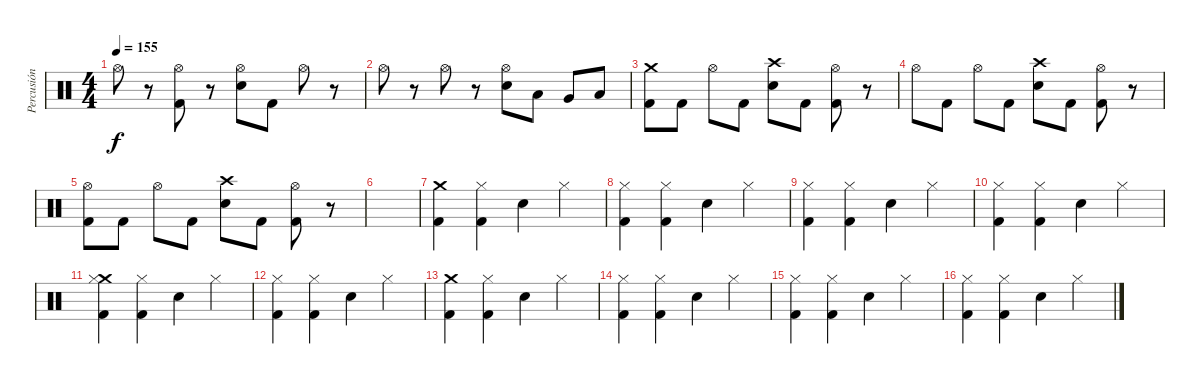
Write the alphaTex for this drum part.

\track ("Percusión" "Percusión") {instrument percussion}
\staff {score}
\articulation defaults
\ts (4 4)
\tempo 155
\clef neutral
\ks c "Hi-Hat (open)".8{dy f}
r.8 ("Hi-Hat (open)" "Kick (hit) 2").8 r.8 ("Hi-Hat (open)" "Electric Snare (hit)").8 "Kick (hit) 2".8 "Hi-Hat (open)".8 r.8 |
"Hi-Hat (open)".8 r.8 "Hi-Hat (open)".8 r.8 ("Hi-Hat (open)" "Electric Snare (hit)").8 "Low Tom (hit)".8 "Very Low Tom (hit)".8 "Low Floor Tom (hit)".8 |
("Crash medium (hit)" "Kick (hit) 2").8 "Kick (hit) 2".8 "Hi-Hat (open)".8 "Kick (hit) 2".8 ("Crash high (hit)" "Electric Snare (hit)").8 "Kick (hit) 2".8 ("Hi-Hat (open)" "Kick (hit) 2").8 r.8 |
"Hi-Hat (open)".8 "Kick (hit) 2".8 "Hi-Hat (open)".8 "Kick (hit) 2".8 ("Crash high (hit)" "Electric Snare (hit)").8 "Kick (hit) 2".8 ("Hi-Hat (open)" "Kick (hit) 2").8 r.8 |
("Hi-Hat (open)" "Kick (hit) 2").8 "Kick (hit) 2".8 "Hi-Hat (open)".8 "Kick (hit) 2".8 ("Crash high (hit)" "Electric Snare (hit)").8 "Kick (hit) 2".8 ("Hi-Hat (open)" "Kick (hit) 2").8 r.8 |
|
("Crash medium (hit)" "Kick (hit) 2").4 ("Hi-Hat (closed)" "Kick (hit) 2").4 "Electric Snare (hit)".4 "Hi-Hat (closed)".4 |
("Hi-Hat (closed)" "Kick (hit) 2").4 ("Hi-Hat (closed)" "Kick (hit) 2").4 "Electric Snare (hit)".4 "Hi-Hat (closed)".4 |
("Hi-Hat (closed)" "Kick (hit) 2").4 ("Hi-Hat (closed)" "Kick (hit) 2").4 "Electric Snare (hit)".4 "Hi-Hat (closed)".4 |
("Hi-Hat (closed)" "Kick (hit) 2").4 ("Hi-Hat (closed)" "Kick (hit) 2").4 "Electric Snare (hit)".4 "Hi-Hat (closed)".4 |
("Crash medium (hit)" "Hi-Hat (closed)" "Kick (hit) 2").4 ("Hi-Hat (closed)" "Kick (hit) 2").4 "Electric Snare (hit)".4 "Hi-Hat (closed)".4 |
("Hi-Hat (closed)" "Kick (hit) 2").4 ("Hi-Hat (closed)" "Kick (hit) 2").4 "Electric Snare (hit)".4 "Hi-Hat (closed)".4 |
("Crash medium (hit)" "Kick (hit) 2").4 ("Hi-Hat (closed)" "Kick (hit) 2").4 "Electric Snare (hit)".4 "Hi-Hat (closed)".4 |
("Hi-Hat (closed)" "Kick (hit) 2").4 ("Hi-Hat (closed)" "Kick (hit) 2").4 "Electric Snare (hit)".4 "Hi-Hat (closed)".4 |
("Hi-Hat (closed)" "Kick (hit) 2").4 ("Hi-Hat (closed)" "Kick (hit) 2").4 "Electric Snare (hit)".4 "Hi-Hat (closed)".4 |
("Hi-Hat (closed)" "Kick (hit) 2").4 ("Hi-Hat (closed)" "Kick (hit) 2").4 "Electric Snare (hit)".4 "Hi-Hat (closed)".4
